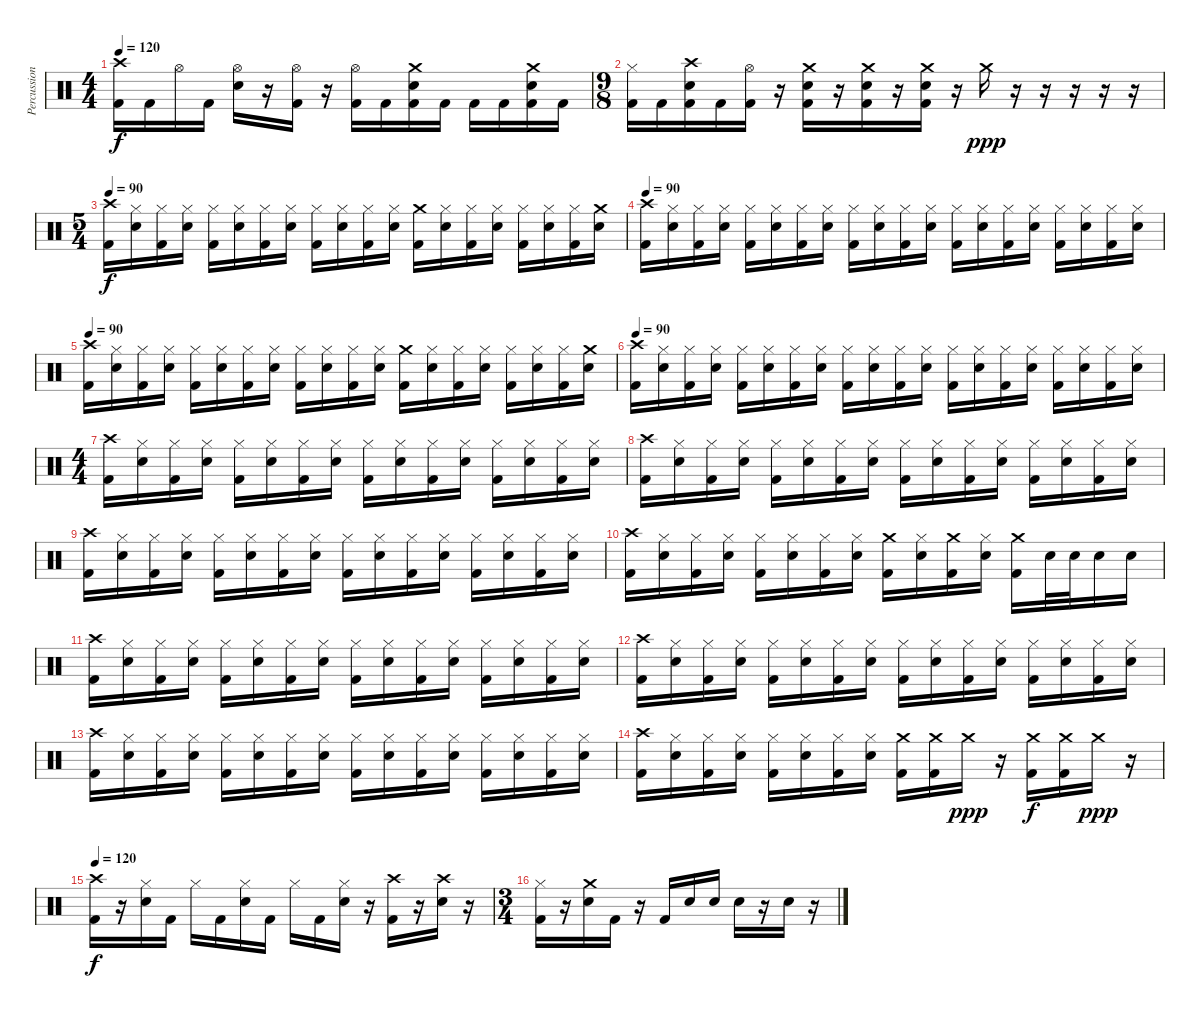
\track ("Percussion" "Percussion") {instrument percussion}
\staff {score}
\articulation defaults
\ts (4 4)
\tempo 120
\clef neutral
\ks c
("Crash high (hit)" "Kick (hit) 2").16{dy f} "Kick (hit) 2".16 "Hi-Hat (open)".16 "Kick (hit) 2".16 ("Hi-Hat (open)" "Snare (hit) 2").16 r.16 ("Hi-Hat (open)" "Kick (hit) 2").16 r.16 ("Hi-Hat (open)" "Kick (hit) 2").16 "Kick (hit) 2".16 ("Crash medium (hit)" "Snare (hit) 2" "Kick (hit) 2").16 "Kick (hit) 2".16 "Kick (hit) 2".16 "Kick (hit) 2".16 ("Crash medium (hit)" "Snare (hit) 2" "Kick (hit) 2").16 "Kick (hit) 2".16 |
\ts (9 8)
("Hi-Hat (closed)" "Kick (hit) 2").16 "Kick (hit) 2".16 ("Crash high (hit)" "Snare (hit) 2" "Kick (hit) 2").16 "Kick (hit) 2".16 ("Hi-Hat (open)" "Kick (hit) 2").16 r.16 ("Crash medium (hit)" "Snare (hit) 2" "Kick (hit) 2").16 r.16 ("Crash medium (hit)" "Snare (hit) 2" "Kick (hit) 2").16 r.16 ("Crash medium (hit)" "Snare (hit) 2" "Kick (hit) 2").16 r.16 "Crash medium (hit)".16{dy ppp} r.16 r.16 r.16 r.16 r.16 |
\ts (5 4)
\tempo 90
("Crash high (hit)" "Kick (hit) 2").16{dy f} ("Hi-Hat (closed)" "Snare (hit) 2").16 ("Hi-Hat (closed)" "Kick (hit) 2").16 ("Hi-Hat (closed)" "Snare (hit) 2").16 ("Hi-Hat (closed)" "Kick (hit) 2").16 ("Hi-Hat (closed)" "Snare (hit) 2").16 ("Hi-Hat (closed)" "Kick (hit) 2").16 ("Hi-Hat (closed)" "Snare (hit) 2").16 ("Hi-Hat (closed)" "Kick (hit) 2").16 ("Hi-Hat (closed)" "Snare (hit) 2").16 ("Hi-Hat (closed)" "Kick (hit) 2").16 ("Hi-Hat (closed)" "Snare (hit) 2").16 ("Crash medium (hit)" "Kick (hit) 2").16 ("Hi-Hat (closed)" "Snare (hit) 2").16 ("Hi-Hat (closed)" "Kick (hit) 2").16 ("Hi-Hat (closed)" "Snare (hit) 2").16 ("Hi-Hat (closed)" "Kick (hit) 2").16 ("Hi-Hat (closed)" "Snare (hit) 2").16 ("Hi-Hat (closed)" "Kick (hit) 2").16 ("Crash medium (hit)" "Snare (hit) 2").16 |
\tempo 90
("Crash high (hit)" "Kick (hit) 2").16 ("Hi-Hat (closed)" "Snare (hit) 2").16 ("Hi-Hat (closed)" "Kick (hit) 2").16 ("Hi-Hat (closed)" "Snare (hit) 2").16 ("Hi-Hat (closed)" "Kick (hit) 2").16 ("Hi-Hat (closed)" "Snare (hit) 2").16 ("Hi-Hat (closed)" "Kick (hit) 2").16 ("Hi-Hat (closed)" "Snare (hit) 2").16 ("Hi-Hat (closed)" "Kick (hit) 2").16 ("Hi-Hat (closed)" "Snare (hit) 2").16 ("Hi-Hat (closed)" "Kick (hit) 2").16 ("Hi-Hat (closed)" "Snare (hit) 2").16 ("Hi-Hat (closed)" "Kick (hit) 2").16 ("Hi-Hat (closed)" "Snare (hit) 2").16 ("Hi-Hat (closed)" "Kick (hit) 2").16 ("Hi-Hat (closed)" "Snare (hit) 2").16 ("Hi-Hat (closed)" "Kick (hit) 2").16 ("Hi-Hat (closed)" "Snare (hit) 2").16 ("Hi-Hat (closed)" "Kick (hit) 2").16 ("Hi-Hat (closed)" "Snare (hit) 2").16 |
\tempo 90
("Crash high (hit)" "Kick (hit) 2").16 ("Hi-Hat (closed)" "Snare (hit) 2").16 ("Hi-Hat (closed)" "Kick (hit) 2").16 ("Hi-Hat (closed)" "Snare (hit) 2").16 ("Hi-Hat (closed)" "Kick (hit) 2").16 ("Hi-Hat (closed)" "Snare (hit) 2").16 ("Hi-Hat (closed)" "Kick (hit) 2").16 ("Hi-Hat (closed)" "Snare (hit) 2").16 ("Hi-Hat (closed)" "Kick (hit) 2").16 ("Hi-Hat (closed)" "Snare (hit) 2").16 ("Hi-Hat (closed)" "Kick (hit) 2").16 ("Hi-Hat (closed)" "Snare (hit) 2").16 ("Crash medium (hit)" "Kick (hit) 2").16 ("Hi-Hat (closed)" "Snare (hit) 2").16 ("Hi-Hat (closed)" "Kick (hit) 2").16 ("Hi-Hat (closed)" "Snare (hit) 2").16 ("Hi-Hat (closed)" "Kick (hit) 2").16 ("Hi-Hat (closed)" "Snare (hit) 2").16 ("Hi-Hat (closed)" "Kick (hit) 2").16 ("Crash medium (hit)" "Snare (hit) 2").16 |
\tempo 90
("Crash high (hit)" "Kick (hit) 2").16 ("Hi-Hat (closed)" "Snare (hit) 2").16 ("Hi-Hat (closed)" "Kick (hit) 2").16 ("Hi-Hat (closed)" "Snare (hit) 2").16 ("Hi-Hat (closed)" "Kick (hit) 2").16 ("Hi-Hat (closed)" "Snare (hit) 2").16 ("Hi-Hat (closed)" "Kick (hit) 2").16 ("Hi-Hat (closed)" "Snare (hit) 2").16 ("Hi-Hat (closed)" "Kick (hit) 2").16 ("Hi-Hat (closed)" "Snare (hit) 2").16 ("Hi-Hat (closed)" "Kick (hit) 2").16 ("Hi-Hat (closed)" "Snare (hit) 2").16 ("Hi-Hat (closed)" "Kick (hit) 2").16 ("Hi-Hat (closed)" "Snare (hit) 2").16 ("Hi-Hat (closed)" "Kick (hit) 2").16 ("Hi-Hat (closed)" "Snare (hit) 2").16 ("Hi-Hat (closed)" "Kick (hit) 2").16 ("Hi-Hat (closed)" "Snare (hit) 2").16 ("Hi-Hat (closed)" "Kick (hit) 2").16 ("Hi-Hat (closed)" "Snare (hit) 2").16 |
\ts (4 4)
("Crash high (hit)" "Kick (hit) 2").16 ("Hi-Hat (closed)" "Snare (hit) 2").16 ("Hi-Hat (closed)" "Kick (hit) 2").16 ("Hi-Hat (closed)" "Snare (hit) 2").16 ("Hi-Hat (closed)" "Kick (hit) 2").16 ("Hi-Hat (closed)" "Snare (hit) 2").16 ("Hi-Hat (closed)" "Kick (hit) 2").16 ("Hi-Hat (closed)" "Snare (hit) 2").16 ("Hi-Hat (closed)" "Kick (hit) 2").16 ("Hi-Hat (closed)" "Snare (hit) 2").16 ("Hi-Hat (closed)" "Kick (hit) 2").16 ("Hi-Hat (closed)" "Snare (hit) 2").16 ("Hi-Hat (closed)" "Kick (hit) 2").16 ("Hi-Hat (closed)" "Snare (hit) 2").16 ("Hi-Hat (closed)" "Kick (hit) 2").16 ("Hi-Hat (closed)" "Snare (hit) 2").16 |
("Crash high (hit)" "Kick (hit) 2").16 ("Hi-Hat (closed)" "Snare (hit) 2").16 ("Hi-Hat (closed)" "Kick (hit) 2").16 ("Hi-Hat (closed)" "Snare (hit) 2").16 ("Hi-Hat (closed)" "Kick (hit) 2").16 ("Hi-Hat (closed)" "Snare (hit) 2").16 ("Hi-Hat (closed)" "Kick (hit) 2").16 ("Hi-Hat (closed)" "Snare (hit) 2").16 ("Hi-Hat (closed)" "Kick (hit) 2").16 ("Hi-Hat (closed)" "Snare (hit) 2").16 ("Hi-Hat (closed)" "Kick (hit) 2").16 ("Hi-Hat (closed)" "Snare (hit) 2").16 ("Hi-Hat (closed)" "Kick (hit) 2").16 ("Hi-Hat (closed)" "Snare (hit) 2").16 ("Hi-Hat (closed)" "Kick (hit) 2").16 ("Hi-Hat (closed)" "Snare (hit) 2").16 |
("Crash high (hit)" "Kick (hit) 2").16 ("Hi-Hat (closed)" "Snare (hit) 2").16 ("Hi-Hat (closed)" "Kick (hit) 2").16 ("Hi-Hat (closed)" "Snare (hit) 2").16 ("Hi-Hat (closed)" "Kick (hit) 2").16 ("Hi-Hat (closed)" "Snare (hit) 2").16 ("Hi-Hat (closed)" "Kick (hit) 2").16 ("Hi-Hat (closed)" "Snare (hit) 2").16 ("Hi-Hat (closed)" "Kick (hit) 2").16 ("Hi-Hat (closed)" "Snare (hit) 2").16 ("Hi-Hat (closed)" "Kick (hit) 2").16 ("Hi-Hat (closed)" "Snare (hit) 2").16 ("Hi-Hat (closed)" "Kick (hit) 2").16 ("Hi-Hat (closed)" "Snare (hit) 2").16 ("Hi-Hat (closed)" "Kick (hit) 2").16 ("Hi-Hat (closed)" "Snare (hit) 2").16 |
("Crash high (hit)" "Kick (hit) 2").16 ("Hi-Hat (closed)" "Snare (hit) 2").16 ("Hi-Hat (closed)" "Kick (hit) 2").16 ("Hi-Hat (closed)" "Snare (hit) 2").16 ("Hi-Hat (closed)" "Kick (hit) 2").16 ("Hi-Hat (closed)" "Snare (hit) 2").16 ("Hi-Hat (closed)" "Kick (hit) 2").16 ("Hi-Hat (closed)" "Snare (hit) 2").16 ("Crash medium (hit)" "Kick (hit) 2").16 ("Hi-Hat (closed)" "Snare (hit) 2").16 ("Crash medium (hit)" "Kick (hit) 2").16 ("Hi-Hat (closed)" "Snare (hit) 2").16 ("Crash medium (hit)" "Kick (hit) 2").16 "Snare (hit) 2".32 "Snare (hit) 2".32 "Snare (hit) 2".16 "Snare (hit) 2".16 |
("Crash high (hit)" "Kick (hit) 2").16 ("Hi-Hat (closed)" "Snare (hit) 2").16 ("Hi-Hat (closed)" "Kick (hit) 2").16 ("Hi-Hat (closed)" "Snare (hit) 2").16 ("Hi-Hat (closed)" "Kick (hit) 2").16 ("Hi-Hat (closed)" "Snare (hit) 2").16 ("Hi-Hat (closed)" "Kick (hit) 2").16 ("Hi-Hat (closed)" "Snare (hit) 2").16 ("Hi-Hat (closed)" "Kick (hit) 2").16 ("Hi-Hat (closed)" "Snare (hit) 2").16 ("Hi-Hat (closed)" "Kick (hit) 2").16 ("Hi-Hat (closed)" "Snare (hit) 2").16 ("Hi-Hat (closed)" "Kick (hit) 2").16 ("Hi-Hat (closed)" "Snare (hit) 2").16 ("Hi-Hat (closed)" "Kick (hit) 2").16 ("Hi-Hat (closed)" "Snare (hit) 2").16 |
("Crash high (hit)" "Kick (hit) 2").16 ("Hi-Hat (closed)" "Snare (hit) 2").16 ("Hi-Hat (closed)" "Kick (hit) 2").16 ("Hi-Hat (closed)" "Snare (hit) 2").16 ("Hi-Hat (closed)" "Kick (hit) 2").16 ("Hi-Hat (closed)" "Snare (hit) 2").16 ("Hi-Hat (closed)" "Kick (hit) 2").16 ("Hi-Hat (closed)" "Snare (hit) 2").16 ("Hi-Hat (closed)" "Kick (hit) 2").16 ("Hi-Hat (closed)" "Snare (hit) 2").16 ("Hi-Hat (closed)" "Kick (hit) 2").16 ("Hi-Hat (closed)" "Snare (hit) 2").16 ("Hi-Hat (closed)" "Kick (hit) 2").16 ("Hi-Hat (closed)" "Snare (hit) 2").16 ("Hi-Hat (closed)" "Kick (hit) 2").16 ("Hi-Hat (closed)" "Snare (hit) 2").16 |
("Crash high (hit)" "Kick (hit) 2").16 ("Hi-Hat (closed)" "Snare (hit) 2").16 ("Hi-Hat (closed)" "Kick (hit) 2").16 ("Hi-Hat (closed)" "Snare (hit) 2").16 ("Hi-Hat (closed)" "Kick (hit) 2").16 ("Hi-Hat (closed)" "Snare (hit) 2").16 ("Hi-Hat (closed)" "Kick (hit) 2").16 ("Hi-Hat (closed)" "Snare (hit) 2").16 ("Hi-Hat (closed)" "Kick (hit) 2").16 ("Hi-Hat (closed)" "Snare (hit) 2").16 ("Hi-Hat (closed)" "Kick (hit) 2").16 ("Hi-Hat (closed)" "Snare (hit) 2").16 ("Hi-Hat (closed)" "Kick (hit) 2").16 ("Hi-Hat (closed)" "Snare (hit) 2").16 ("Hi-Hat (closed)" "Kick (hit) 2").16 ("Hi-Hat (closed)" "Snare (hit) 2").16 |
("Crash high (hit)" "Kick (hit) 2").16 ("Hi-Hat (closed)" "Snare (hit) 2").16 ("Hi-Hat (closed)" "Kick (hit) 2").16 ("Hi-Hat (closed)" "Snare (hit) 2").16 ("Hi-Hat (closed)" "Kick (hit) 2").16 ("Hi-Hat (closed)" "Snare (hit) 2").16 ("Hi-Hat (closed)" "Kick (hit) 2").16 ("Hi-Hat (closed)" "Snare (hit) 2").16 ("Crash medium (hit)" "Kick (hit) 2").16 ("Crash medium (hit)" "Kick (hit) 2").16 "Crash medium (hit)".16{dy ppp} r.16 ("Crash medium (hit)" "Kick (hit) 2").16{dy f} ("Crash medium (hit)" "Kick (hit) 2").16 "Crash medium (hit)".16{dy ppp} r.16 |
\tempo 120
("Crash high (hit)" "Kick (hit) 2").16{dy f} r.16 ("Hi-Hat (closed)" "Snare (hit) 2").16 "Kick (hit) 2".16 "Hi-Hat (closed)".16 "Kick (hit) 2".16 ("Hi-Hat (closed)" "Snare (hit) 2").16 "Kick (hit) 2".16 "Hi-Hat (closed)".16 "Kick (hit) 2".16 ("Hi-Hat (closed)" "Snare (hit) 2").16 r.16 ("Crash high (hit)" "Kick (hit) 2").16 r.16 ("Crash high (hit)" "Snare (hit) 2").16 r.16 |
\ts (3 4)
("Hi-Hat (closed)" "Kick (hit) 2").16 r.16 ("Crash medium (hit)" "Snare (hit) 2").16 "Kick (hit) 2".16 r.16 "Kick (hit) 2".16 "Snare (hit) 2".16 "Snare (hit) 2".16 "Snare (hit) 2".16 r.16 "Snare (hit) 2".16 r.16
